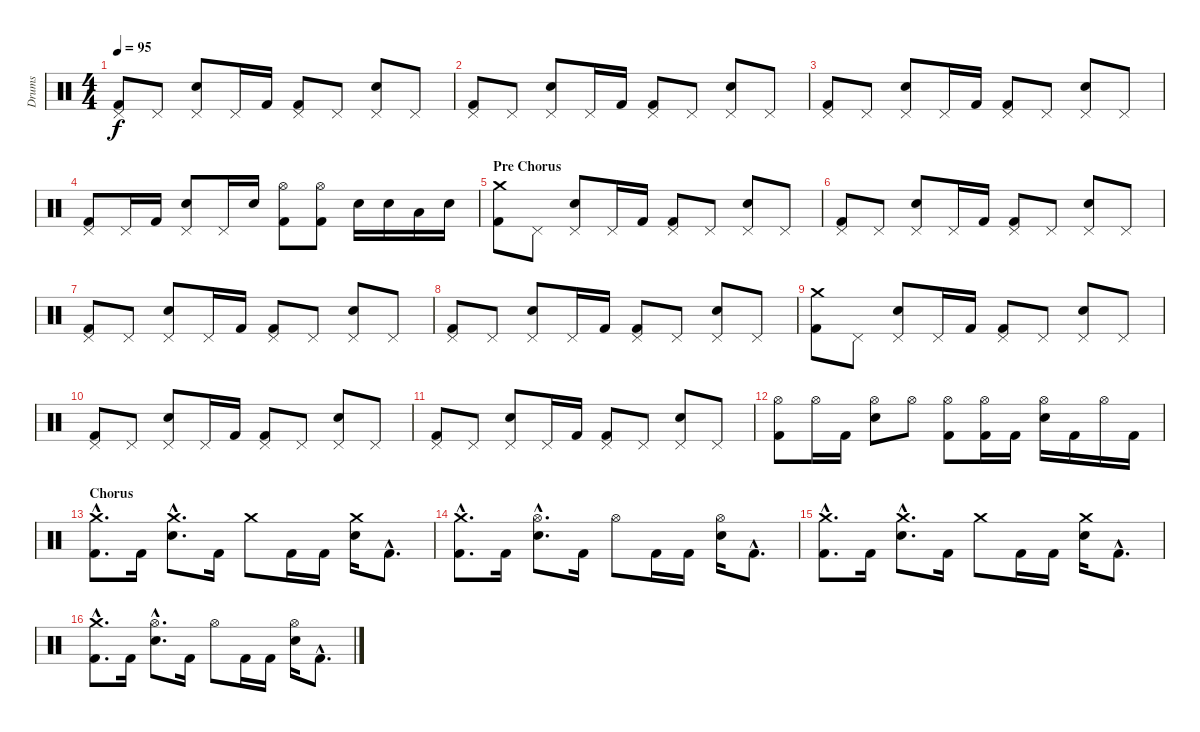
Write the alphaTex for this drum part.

\track ("Drums" "Drums") {instrument percussion}
\staff {score}
\articulation defaults
\ts (4 4)
\tempo 95
\clef neutral
\ks c
("Pedal Hi-Hat (hit)" "Kick (hit) 2").8{dy f} "Pedal Hi-Hat (hit)".8 ("Pedal Hi-Hat (hit)" "Electric Snare (hit)").8 "Pedal Hi-Hat (hit)".16 "Kick (hit) 2".16 ("Pedal Hi-Hat (hit)" "Kick (hit) 2").8 "Pedal Hi-Hat (hit)".8 ("Pedal Hi-Hat (hit)" "Electric Snare (hit)").8 "Pedal Hi-Hat (hit)".8 |
("Pedal Hi-Hat (hit)" "Kick (hit) 2").8 "Pedal Hi-Hat (hit)".8 ("Pedal Hi-Hat (hit)" "Electric Snare (hit)").8 "Pedal Hi-Hat (hit)".16 "Kick (hit) 2".16 ("Pedal Hi-Hat (hit)" "Kick (hit) 2").8 "Pedal Hi-Hat (hit)".8 ("Pedal Hi-Hat (hit)" "Electric Snare (hit)").8 "Pedal Hi-Hat (hit)".8 |
("Pedal Hi-Hat (hit)" "Kick (hit) 2").8 "Pedal Hi-Hat (hit)".8 ("Pedal Hi-Hat (hit)" "Electric Snare (hit)").8 "Pedal Hi-Hat (hit)".16 "Kick (hit) 2".16 ("Pedal Hi-Hat (hit)" "Kick (hit) 2").8 "Pedal Hi-Hat (hit)".8 ("Pedal Hi-Hat (hit)" "Electric Snare (hit)").8 "Pedal Hi-Hat (hit)".8 |
("Pedal Hi-Hat (hit)" "Kick (hit) 2").8 "Pedal Hi-Hat (hit)".16 "Kick (hit) 2".16 ("Pedal Hi-Hat (hit)" "Electric Snare (hit)").8 "Pedal Hi-Hat (hit)".16 "Electric Snare (hit)".16 ("Hi-Hat (open)" "Kick (hit) 2").8 ("Hi-Hat (open)" "Kick (hit) 2").8 "Electric Snare (hit)".16 "Electric Snare (hit)".16 "Low Tom (hit)".16 "Electric Snare (hit)".16 |
\section ("" "Pre Chorus")
("Crash medium (hit)" "Kick (hit) 2").8 "Pedal Hi-Hat (hit)".8 ("Pedal Hi-Hat (hit)" "Electric Snare (hit)").8 "Pedal Hi-Hat (hit)".16 "Kick (hit) 2".16 ("Pedal Hi-Hat (hit)" "Kick (hit) 2").8 "Pedal Hi-Hat (hit)".8 ("Pedal Hi-Hat (hit)" "Electric Snare (hit)").8 "Pedal Hi-Hat (hit)".8 |
("Pedal Hi-Hat (hit)" "Kick (hit) 2").8 "Pedal Hi-Hat (hit)".8 ("Pedal Hi-Hat (hit)" "Electric Snare (hit)").8 "Pedal Hi-Hat (hit)".16 "Kick (hit) 2".16 ("Pedal Hi-Hat (hit)" "Kick (hit) 2").8 "Pedal Hi-Hat (hit)".8 ("Pedal Hi-Hat (hit)" "Electric Snare (hit)").8 "Pedal Hi-Hat (hit)".8 |
("Pedal Hi-Hat (hit)" "Kick (hit) 2").8 "Pedal Hi-Hat (hit)".8 ("Pedal Hi-Hat (hit)" "Electric Snare (hit)").8 "Pedal Hi-Hat (hit)".16 "Kick (hit) 2".16 ("Pedal Hi-Hat (hit)" "Kick (hit) 2").8 "Pedal Hi-Hat (hit)".8 ("Pedal Hi-Hat (hit)" "Electric Snare (hit)").8 "Pedal Hi-Hat (hit)".8 |
("Pedal Hi-Hat (hit)" "Kick (hit) 2").8 "Pedal Hi-Hat (hit)".8 ("Pedal Hi-Hat (hit)" "Electric Snare (hit)").8 "Pedal Hi-Hat (hit)".16 "Kick (hit) 2".16 ("Pedal Hi-Hat (hit)" "Kick (hit) 2").8 "Pedal Hi-Hat (hit)".8 ("Pedal Hi-Hat (hit)" "Electric Snare (hit)").8 "Pedal Hi-Hat (hit)".8 |
("Crash medium (hit)" "Kick (hit) 2").8 "Pedal Hi-Hat (hit)".8 ("Pedal Hi-Hat (hit)" "Electric Snare (hit)").8 "Pedal Hi-Hat (hit)".16 "Kick (hit) 2".16 ("Pedal Hi-Hat (hit)" "Kick (hit) 2").8 "Pedal Hi-Hat (hit)".8 ("Pedal Hi-Hat (hit)" "Electric Snare (hit)").8 "Pedal Hi-Hat (hit)".8 |
("Pedal Hi-Hat (hit)" "Kick (hit) 2").8 "Pedal Hi-Hat (hit)".8 ("Pedal Hi-Hat (hit)" "Electric Snare (hit)").8 "Pedal Hi-Hat (hit)".16 "Kick (hit) 2".16 ("Pedal Hi-Hat (hit)" "Kick (hit) 2").8 "Pedal Hi-Hat (hit)".8 ("Pedal Hi-Hat (hit)" "Electric Snare (hit)").8 "Pedal Hi-Hat (hit)".8 |
("Pedal Hi-Hat (hit)" "Kick (hit) 2").8 "Pedal Hi-Hat (hit)".8 ("Pedal Hi-Hat (hit)" "Electric Snare (hit)").8 "Pedal Hi-Hat (hit)".16 "Kick (hit) 2".16 ("Pedal Hi-Hat (hit)" "Kick (hit) 2").8 "Pedal Hi-Hat (hit)".8 ("Pedal Hi-Hat (hit)" "Electric Snare (hit)").8 "Pedal Hi-Hat (hit)".8 |
("Hi-Hat (open)" "Kick (hit) 2").8 "Hi-Hat (open)".16 "Kick (hit) 2".16 ("Hi-Hat (open)" "Electric Snare (hit)").8 "Hi-Hat (open)".8 ("Hi-Hat (open)" "Kick (hit) 2").8 ("Hi-Hat (open)" "Kick (hit) 2").16 "Kick (hit) 2".16 ("Hi-Hat (open)" "Electric Snare (hit)").16 "Kick (hit) 2".16 "Hi-Hat (open)".16 "Kick (hit) 2".16 |
\section ("" "Chorus")
("Crash medium (hit)"{hac} "Kick (hit) 2"{hac}).8{d} "Kick (hit) 2".16 ("Crash medium (hit)"{hac} "Electric Snare (hit)"{hac}).8{d} "Kick (hit) 2".16 "Crash medium (hit)".8 "Kick (hit) 2".16 "Kick (hit) 2".16 ("Crash medium (hit)" "Electric Snare (hit)").16 "Kick (hit) 2"{hac}.8{d} |
("Crash medium (hit)"{hac} "Kick (hit) 2"{hac}).8{d} "Kick (hit) 2".16 ("Hi-Hat (open)"{hac} "Electric Snare (hit)"{hac}).8{d} "Kick (hit) 2".16 "Hi-Hat (open)".8 "Kick (hit) 2".16 "Kick (hit) 2".16 ("Hi-Hat (open)" "Electric Snare (hit)").16 "Kick (hit) 2"{hac}.8{d} |
("Crash medium (hit)"{hac} "Kick (hit) 2"{hac}).8{d} "Kick (hit) 2".16 ("Crash medium (hit)"{hac} "Electric Snare (hit)"{hac}).8{d} "Kick (hit) 2".16 "Crash medium (hit)".8 "Kick (hit) 2".16 "Kick (hit) 2".16 ("Crash medium (hit)" "Electric Snare (hit)").16 "Kick (hit) 2"{hac}.8{d} |
("Crash medium (hit)"{hac} "Kick (hit) 2"{hac}).8{d} "Kick (hit) 2".16 ("Hi-Hat (open)"{hac} "Electric Snare (hit)"{hac}).8{d} "Kick (hit) 2".16 "Hi-Hat (open)".8 "Kick (hit) 2".16 "Kick (hit) 2".16 ("Hi-Hat (open)" "Electric Snare (hit)").16 "Kick (hit) 2"{hac}.8{d}
